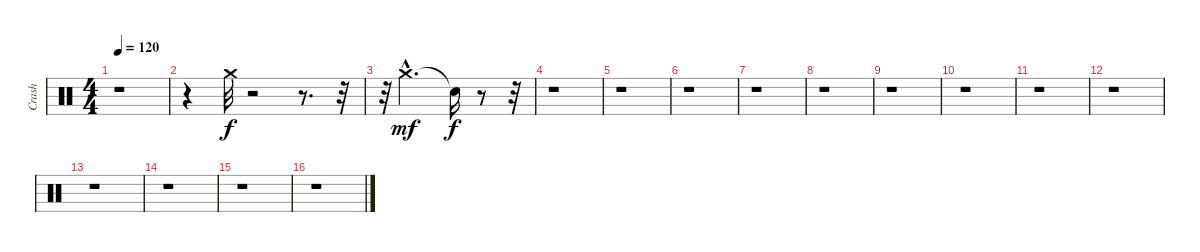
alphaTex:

\track ("Crash" "Crash") {instrument percussion}
\staff {score}
\articulation defaults
\ts (4 4)
\tempo 120
\clef neutral
\ks c
r.1{dy mp} |
r.4 "Crash medium (hit)".32{dy f} r.2 r.8{d} r.32 |
r.32 "Crash medium (hit)"{hac}.2{d dy mf} "Snare (hit)"{t}.16{dy f} r.8 r.32 |
r.1 |
r.1 |
r.1 |
r.1 |
r.1 |
r.1 |
r.1 |
r.1 |
r.1 |
r.1 |
r.1 |
r.1 |
r.1
